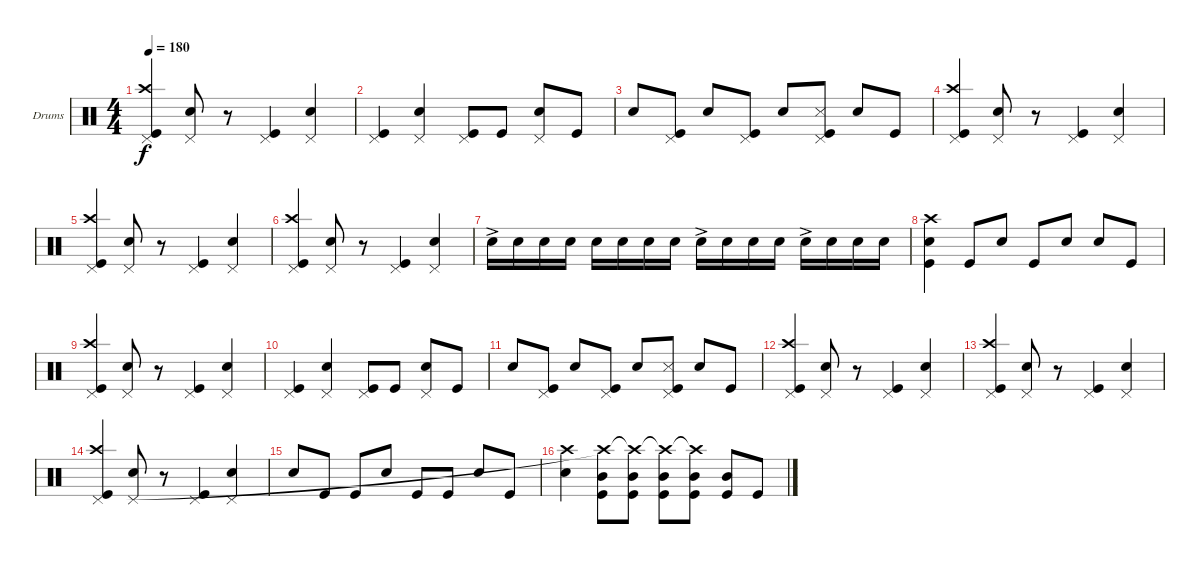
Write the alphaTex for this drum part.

\defaultSystemsLayout 4
\bracketExtendMode groupsimilarinstruments
\firstSystemTrackNameOrientation horizontal
\otherSystemsTrackNameOrientation horizontal
\track ("Drumkit" "Drums") {multiBarRest instrument percussion}
\staff {score}
\articulation defaults
\ts (4 4)
\tempo 180
\clef neutral
\scale
0.333333
\ks c
("Pedal Hi-Hat (hit)" "Crash high (hit)" "Kick (hit)").4{dy f} ("Pedal Hi-Hat (hit)" "Snare (hit) 2").8 r.8 ("Pedal Hi-Hat (hit)" "Kick (hit)").4 ("Pedal Hi-Hat (hit)" "Snare (hit) 2").4 |
\scale
0.333333 ("Pedal Hi-Hat (hit)" "Kick (hit)").4 ("Pedal Hi-Hat (hit)" "Snare (hit) 2").4 ("Pedal Hi-Hat (hit)" "Kick (hit)").8 "Kick (hit)".8 ("Pedal Hi-Hat (hit)" "Snare (hit) 2").8 "Kick (hit)".8 |
\scale
0.333333 "Snare (hit) 2".8 ("Pedal Hi-Hat (hit)" "Kick (hit)").8 "Snare (hit) 2".8 ("Pedal Hi-Hat (hit)" "Kick (hit)").8 "Snare (hit) 2".8 ("Pedal Hi-Hat (hit)" "Snare (side stick) 3" "Kick (hit)").8 "Snare (hit) 2".8 "Kick (hit)".8 |
\scale
0.333333 ("Pedal Hi-Hat (hit)" "Crash high (hit)" "Kick (hit)").4 ("Pedal Hi-Hat (hit)" "Snare (hit) 2").8 r.8 ("Pedal Hi-Hat (hit)" "Kick (hit)").4 ("Pedal Hi-Hat (hit)" "Snare (hit) 2").4 |
\scale
0.333333 ("Pedal Hi-Hat (hit)" "Crash high (hit)" "Kick (hit)").4 ("Pedal Hi-Hat (hit)" "Snare (hit) 2").8 r.8 ("Pedal Hi-Hat (hit)" "Kick (hit)").4 ("Pedal Hi-Hat (hit)" "Snare (hit) 2").4 |
\scale
0.333333 ("Pedal Hi-Hat (hit)" "Crash high (hit)" "Kick (hit)").4 ("Pedal Hi-Hat (hit)" "Snare (hit) 2").8 r.8 ("Pedal Hi-Hat (hit)" "Kick (hit)").4 ("Pedal Hi-Hat (hit)" "Snare (hit) 2").4 |
\scale
0.333333 "Snare (hit) 2"{ac}.16 "Snare (hit) 2".16 "Snare (hit) 2".16 "Snare (hit) 2".16 "Snare (hit) 2".16 "Snare (hit) 2".16 "Snare (hit) 2".16 "Snare (hit) 2".16 "Snare (hit) 2"{ac}.16 "Snare (hit) 2".16 "Snare (hit) 2".16 "Snare (hit) 2".16 "Snare (hit) 2"{ac}.16 "Snare (hit) 2".16 "Snare (hit) 2".16 "Snare (hit) 2".16 |
\scale
0.333333 ("Kick (hit)" "Snare (hit) 2" "Crash high (hit)").4 "Kick (hit)".8 "Snare (hit) 2".8 "Kick (hit)".8 "Snare (hit) 2".8 "Snare (hit) 2".8 "Kick (hit)".8 |
\scale
0.333333 ("Pedal Hi-Hat (hit)" "Crash high (hit)" "Kick (hit)").4 ("Pedal Hi-Hat (hit)" "Snare (hit) 2").8 r.8 ("Pedal Hi-Hat (hit)" "Kick (hit)").4 ("Pedal Hi-Hat (hit)" "Snare (hit) 2").4 |
\scale
0.333333 ("Pedal Hi-Hat (hit)" "Kick (hit)").4 ("Pedal Hi-Hat (hit)" "Snare (hit) 2").4 ("Pedal Hi-Hat (hit)" "Kick (hit)").8 "Kick (hit)".8 ("Pedal Hi-Hat (hit)" "Snare (hit) 2").8 "Kick (hit)".8 |
\scale
0.333333 "Snare (hit) 2".8 ("Pedal Hi-Hat (hit)" "Kick (hit)").8 "Snare (hit) 2".8 ("Pedal Hi-Hat (hit)" "Kick (hit)").8 "Snare (hit) 2".8 ("Pedal Hi-Hat (hit)" "Snare (side stick) 3" "Kick (hit)").8 "Snare (hit) 2".8 "Kick (hit)".8 |
\scale
0.333333 ("Pedal Hi-Hat (hit)" "Crash high (hit)" "Kick (hit)").4 ("Pedal Hi-Hat (hit)" "Snare (hit) 2").8 r.8 ("Pedal Hi-Hat (hit)" "Kick (hit)").4 ("Pedal Hi-Hat (hit)" "Snare (hit) 2").4 |
\scale
0.333333 ("Pedal Hi-Hat (hit)" "Crash high (hit)" "Kick (hit)").4 ("Pedal Hi-Hat (hit)" "Snare (hit) 2").8 r.8 ("Pedal Hi-Hat (hit)" "Kick (hit)").4 ("Pedal Hi-Hat (hit)" "Snare (hit) 2").4 |
\scale
0.333333 ("Pedal Hi-Hat (hit)" "Crash high (hit)" "Kick (hit)").4 ("Pedal Hi-Hat (hit)" "Snare (hit) 2").8 r.8 ("Pedal Hi-Hat (hit)" "Kick (hit)").4 ("Pedal Hi-Hat (hit)" "Snare (hit) 2").4 |
\scale
0.333333 "Snare (hit) 2".8 "Kick (hit)".8 "Kick (hit)".8 "Snare (hit) 2".8 "Kick (hit)".8 "Kick (hit)".8 "Snare (hit) 2".8 "Kick (hit)".8 |
\scale
0.333333 ("Snare (hit) 2" "Crash high (hit)").4 ("Mid Tom (hit)" "Kick (hit)" "Crash high (hit)"{t}).8 ("Mid Tom (hit)" "Kick (hit)" "Crash high (hit)"{t}).8 ("Mid Tom (hit)" "Kick (hit)" "Crash high (hit)"{t}).8 ("Mid Tom (hit)" "Kick (hit)" "Crash high (hit)"{t}).8 ("Mid Tom (hit)" "Kick (hit)").8 "Kick (hit)".8
